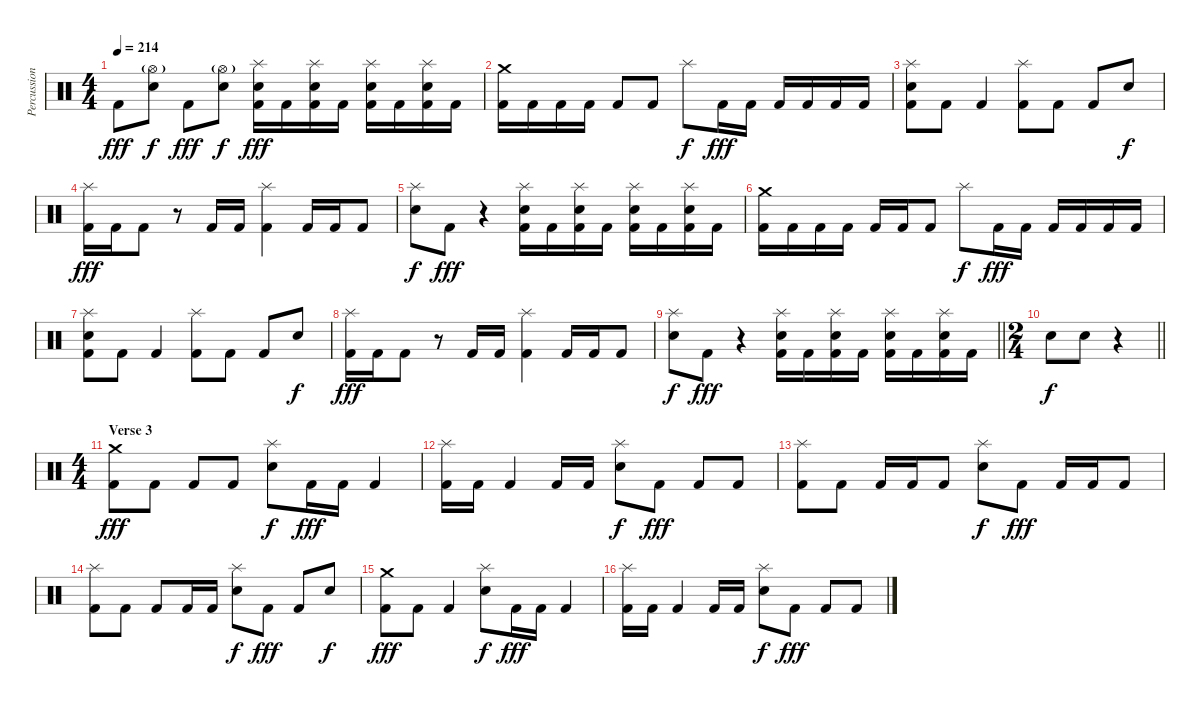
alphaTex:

\track ("Percussion" "Percussion") {instrument percussion}
\staff {score}
\articulation defaults
\ts (4 4)
\tempo 214
\clef neutral
\ks c "Kick (hit) 2".8{dy fff}
("Hi-Hat (open)"{g} "Electric Snare (hit)").8{dy f} "Kick (hit) 2".8{dy fff} ("Hi-Hat (open)"{g} "Electric Snare (hit)").8{dy f} ("Splash (hit)" "Electric Snare (hit)" "Kick (hit) 2").16{dy fff} "Kick (hit) 2".16 ("Splash (hit)" "Electric Snare (hit)" "Kick (hit) 2").16 "Kick (hit) 2".16 ("Splash (hit)" "Electric Snare (hit)" "Kick (hit) 2").16 "Kick (hit) 2".16 ("Splash (hit)" "Electric Snare (hit)" "Kick (hit) 2").16 "Kick (hit) 2".16 |
("Crash medium (hit)" "Kick (hit) 2").16 "Kick (hit) 2".16 "Kick (hit) 2".16 "Kick (hit) 2".16 "Kick (hit) 2".8 "Kick (hit) 2".8 "Splash (hit)".8{dy f} "Kick (hit) 2".16{dy fff} "Kick (hit) 2".16 "Kick (hit) 2".16 "Kick (hit) 2".16 "Kick (hit) 2".16 "Kick (hit) 2".16 |
("Splash (hit)" "Electric Snare (hit)" "Kick (hit) 2").8 "Kick (hit) 2".8 "Kick (hit) 2".4 ("Splash (hit)" "Kick (hit) 2").8 "Kick (hit) 2".8 "Kick (hit) 2".8 "Electric Snare (hit)".8{dy f} |
("Splash (hit)" "Kick (hit) 2").16{dy fff} "Kick (hit) 2".16 "Kick (hit) 2".8 r.8 "Kick (hit) 2".16 "Kick (hit) 2".16 ("Splash (hit)" "Kick (hit) 2").4 "Kick (hit) 2".16 "Kick (hit) 2".16 "Kick (hit) 2".8 |
("Splash (hit)" "Electric Snare (hit)").8{dy f} "Kick (hit) 2".8{dy fff} r.4 ("Splash (hit)" "Electric Snare (hit)" "Kick (hit) 2").16 "Kick (hit) 2".16 ("Splash (hit)" "Electric Snare (hit)" "Kick (hit) 2").16 "Kick (hit) 2".16 ("Splash (hit)" "Electric Snare (hit)" "Kick (hit) 2").16 "Kick (hit) 2".16 ("Splash (hit)" "Electric Snare (hit)" "Kick (hit) 2").16 "Kick (hit) 2".16 |
("Crash medium (hit)" "Kick (hit) 2").16 "Kick (hit) 2".16 "Kick (hit) 2".16 "Kick (hit) 2".16 "Kick (hit) 2".16 "Kick (hit) 2".16 "Kick (hit) 2".8 "Splash (hit)".8{dy f} "Kick (hit) 2".16{dy fff} "Kick (hit) 2".16 "Kick (hit) 2".16 "Kick (hit) 2".16 "Kick (hit) 2".16 "Kick (hit) 2".16 |
("Splash (hit)" "Electric Snare (hit)" "Kick (hit) 2").8 "Kick (hit) 2".8 "Kick (hit) 2".4 ("Splash (hit)" "Kick (hit) 2").8 "Kick (hit) 2".8 "Kick (hit) 2".8 "Electric Snare (hit)".8{dy f} |
("Splash (hit)" "Kick (hit) 2").16{dy fff} "Kick (hit) 2".16 "Kick (hit) 2".8 r.8 "Kick (hit) 2".16 "Kick (hit) 2".16 ("Splash (hit)" "Kick (hit) 2").4 "Kick (hit) 2".16 "Kick (hit) 2".16 "Kick (hit) 2".8 |
\barLineRight lightlight
("Splash (hit)" "Electric Snare (hit)").8{dy f} "Kick (hit) 2".8{dy fff} r.4 ("Splash (hit)" "Electric Snare (hit)" "Kick (hit) 2").16 "Kick (hit) 2".16 ("Splash (hit)" "Electric Snare (hit)" "Kick (hit) 2").16 "Kick (hit) 2".16 ("Splash (hit)" "Electric Snare (hit)" "Kick (hit) 2").16 "Kick (hit) 2".16 ("Splash (hit)" "Electric Snare (hit)" "Kick (hit) 2").16 "Kick (hit) 2".16 |
\ts (2 4)
\section ("" "")
\barLineRight lightlight "Electric Snare (hit)".8{dy f} "Electric Snare (hit)".8
r.4 |
\ts (4 4)
\section ("" "Verse 3")
("Crash medium (hit)" "Kick (hit) 2").8{dy fff} "Kick (hit) 2".8 "Kick (hit) 2".8 "Kick (hit) 2".8 ("Splash (hit)" "Electric Snare (hit)").8{dy f} "Kick (hit) 2".16{dy fff} "Kick (hit) 2".16 "Kick (hit) 2".4 |
("Splash (hit)" "Kick (hit) 2").16 "Kick (hit) 2".16 "Kick (hit) 2".4 "Kick (hit) 2".16 "Kick (hit) 2".16 ("Splash (hit)" "Electric Snare (hit)").8{dy f} "Kick (hit) 2".8{dy fff} "Kick (hit) 2".8 "Kick (hit) 2".8 |
("Splash (hit)" "Kick (hit) 2").8 "Kick (hit) 2".8 "Kick (hit) 2".16 "Kick (hit) 2".16 "Kick (hit) 2".8 ("Splash (hit)" "Electric Snare (hit)").8{dy f} "Kick (hit) 2".8{dy fff} "Kick (hit) 2".16 "Kick (hit) 2".16 "Kick (hit) 2".8 |
("Splash (hit)" "Kick (hit) 2").8 "Kick (hit) 2".8 "Kick (hit) 2".8 "Kick (hit) 2".16 "Kick (hit) 2".16 ("Splash (hit)" "Electric Snare (hit)").8{dy f} "Kick (hit) 2".8{dy fff} "Kick (hit) 2".8 "Electric Snare (hit)".8{dy f} |
("Crash medium (hit)" "Kick (hit) 2").8{dy fff} "Kick (hit) 2".8 "Kick (hit) 2".4 ("Splash (hit)" "Electric Snare (hit)").8{dy f} "Kick (hit) 2".16{dy fff} "Kick (hit) 2".16 "Kick (hit) 2".4 |
("Splash (hit)" "Kick (hit) 2").16 "Kick (hit) 2".16 "Kick (hit) 2".4 "Kick (hit) 2".16 "Kick (hit) 2".16 ("Splash (hit)" "Electric Snare (hit)").8{dy f} "Kick (hit) 2".8{dy fff} "Kick (hit) 2".8 "Kick (hit) 2".8
